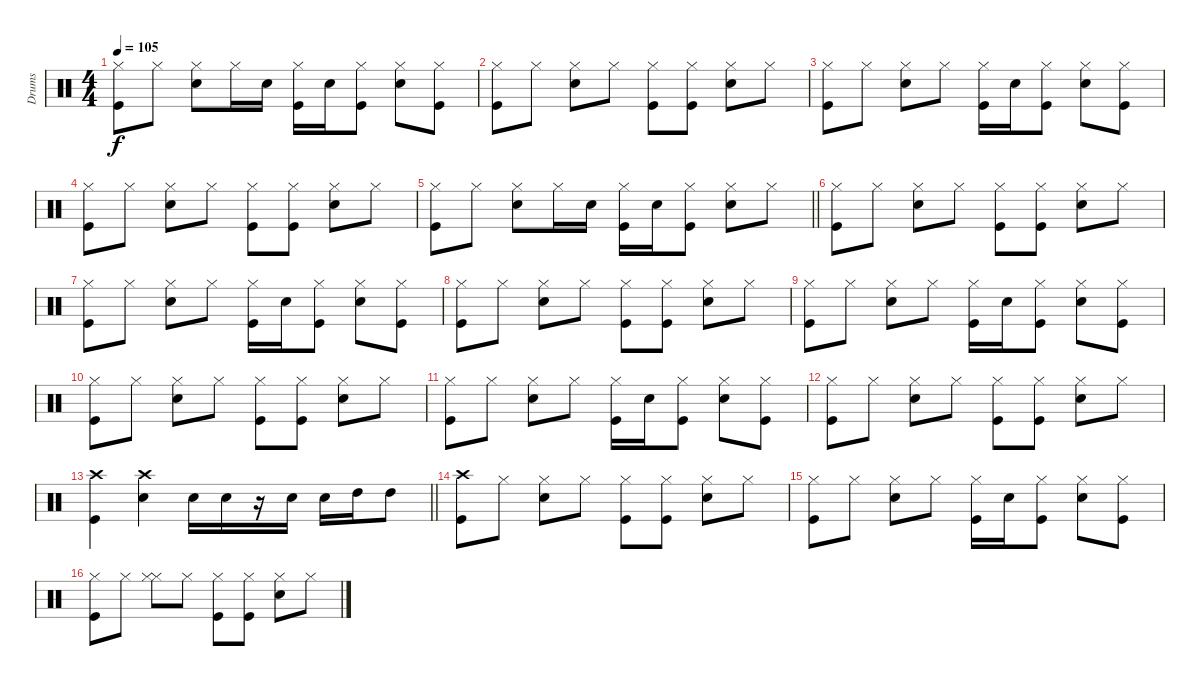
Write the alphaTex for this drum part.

\track ("Drums" "Drums") {instrument percussion}
\staff {score}
\articulation defaults
\ts (4 4)
\tempo 105
\clef neutral
\ks c
("Hi-Hat (closed)" "Kick (hit)").8{dy f} "Hi-Hat (closed)".8 ("Hi-Hat (closed)" "Electric Snare (hit)").8 "Hi-Hat (closed)".16 "Electric Snare (hit)".16 ("Hi-Hat (closed)" "Kick (hit)").16 "Electric Snare (hit)".16 ("Hi-Hat (closed)" "Kick (hit)").8 ("Hi-Hat (closed)" "Electric Snare (hit)").8 ("Hi-Hat (closed)" "Kick (hit)").8 |
("Hi-Hat (closed)" "Kick (hit)").8 "Hi-Hat (closed)".8 ("Hi-Hat (closed)" "Electric Snare (hit)").8 "Hi-Hat (closed)".8 ("Hi-Hat (closed)" "Kick (hit)").8 ("Hi-Hat (closed)" "Kick (hit)").8 ("Hi-Hat (closed)" "Electric Snare (hit)").8 "Hi-Hat (closed)".8 |
("Hi-Hat (closed)" "Kick (hit)").8 "Hi-Hat (closed)".8 ("Hi-Hat (closed)" "Electric Snare (hit)").8 "Hi-Hat (closed)".8 ("Hi-Hat (closed)" "Kick (hit)").16 "Electric Snare (hit)".16 ("Hi-Hat (closed)" "Kick (hit)").8 ("Hi-Hat (closed)" "Electric Snare (hit)").8 ("Hi-Hat (closed)" "Kick (hit)").8 |
("Hi-Hat (closed)" "Kick (hit)").8 "Hi-Hat (closed)".8 ("Hi-Hat (closed)" "Electric Snare (hit)").8 "Hi-Hat (closed)".8 ("Hi-Hat (closed)" "Kick (hit)").8 ("Hi-Hat (closed)" "Kick (hit)").8 ("Hi-Hat (closed)" "Electric Snare (hit)").8 "Hi-Hat (closed)".8 |
\barLineRight lightlight
("Hi-Hat (closed)" "Kick (hit)").8 "Hi-Hat (closed)".8 ("Hi-Hat (closed)" "Electric Snare (hit)").8 "Hi-Hat (closed)".16 "Electric Snare (hit)".16 ("Hi-Hat (closed)" "Kick (hit)").16 "Electric Snare (hit)".16 ("Hi-Hat (closed)" "Kick (hit)").8 ("Hi-Hat (closed)" "Electric Snare (hit)").8 "Hi-Hat (closed)".8 |
("Hi-Hat (closed)" "Kick (hit)").8 "Hi-Hat (closed)".8 ("Hi-Hat (closed)" "Electric Snare (hit)").8 "Hi-Hat (closed)".8 ("Hi-Hat (closed)" "Kick (hit)").8 ("Hi-Hat (closed)" "Kick (hit)").8 ("Hi-Hat (closed)" "Electric Snare (hit)").8 "Hi-Hat (closed)".8 |
("Hi-Hat (closed)" "Kick (hit)").8 "Hi-Hat (closed)".8 ("Hi-Hat (closed)" "Electric Snare (hit)").8 "Hi-Hat (closed)".8 ("Hi-Hat (closed)" "Kick (hit)").16 "Electric Snare (hit)".16 ("Hi-Hat (closed)" "Kick (hit)").8 ("Hi-Hat (closed)" "Electric Snare (hit)").8 ("Hi-Hat (closed)" "Kick (hit)").8 |
("Hi-Hat (closed)" "Kick (hit)").8 "Hi-Hat (closed)".8 ("Hi-Hat (closed)" "Electric Snare (hit)").8 "Hi-Hat (closed)".8 ("Hi-Hat (closed)" "Kick (hit)").8 ("Hi-Hat (closed)" "Kick (hit)").8 ("Hi-Hat (closed)" "Electric Snare (hit)").8 "Hi-Hat (closed)".8 |
("Hi-Hat (closed)" "Kick (hit)").8 "Hi-Hat (closed)".8 ("Hi-Hat (closed)" "Electric Snare (hit)").8 "Hi-Hat (closed)".8 ("Hi-Hat (closed)" "Kick (hit)").16 "Electric Snare (hit)".16 ("Hi-Hat (closed)" "Kick (hit)").8 ("Hi-Hat (closed)" "Electric Snare (hit)").8 ("Hi-Hat (closed)" "Kick (hit)").8 |
("Hi-Hat (closed)" "Kick (hit)").8 "Hi-Hat (closed)".8 ("Hi-Hat (closed)" "Electric Snare (hit)").8 "Hi-Hat (closed)".8 ("Hi-Hat (closed)" "Kick (hit)").8 ("Hi-Hat (closed)" "Kick (hit)").8 ("Hi-Hat (closed)" "Electric Snare (hit)").8 "Hi-Hat (closed)".8 |
("Hi-Hat (closed)" "Kick (hit)").8 "Hi-Hat (closed)".8 ("Hi-Hat (closed)" "Electric Snare (hit)").8 "Hi-Hat (closed)".8 ("Hi-Hat (closed)" "Kick (hit)").16 "Electric Snare (hit)".16 ("Hi-Hat (closed)" "Kick (hit)").8 ("Hi-Hat (closed)" "Electric Snare (hit)").8 ("Hi-Hat (closed)" "Kick (hit)").8 |
("Hi-Hat (closed)" "Kick (hit)").8 "Hi-Hat (closed)".8 ("Hi-Hat (closed)" "Electric Snare (hit)").8 "Hi-Hat (closed)".8 ("Hi-Hat (closed)" "Kick (hit)").8 ("Hi-Hat (closed)" "Kick (hit)").8 ("Hi-Hat (closed)" "Electric Snare (hit)").8 "Hi-Hat (closed)".8 |
\barLineRight lightlight
("Crash high (hit)" "Kick (hit)").4 ("Crash high (hit)" "Electric Snare (hit)").4 "Electric Snare (hit)".16 "Electric Snare (hit)".16 r.16 "Electric Snare (hit)".16 "Electric Snare (hit)".16 "High Tom (hit)".16 "High Tom (hit)".8 |
("Crash high (hit)" "Kick (hit)").8 "Hi-Hat (closed)".8 ("Hi-Hat (closed)" "Electric Snare (hit)").8 "Hi-Hat (closed)".8 ("Hi-Hat (closed)" "Kick (hit)").8 ("Hi-Hat (closed)" "Kick (hit)").8 ("Hi-Hat (closed)" "Electric Snare (hit)").8 "Hi-Hat (closed)".8 |
("Hi-Hat (closed)" "Kick (hit)").8 "Hi-Hat (closed)".8 ("Hi-Hat (closed)" "Electric Snare (hit)").8 "Hi-Hat (closed)".8 ("Hi-Hat (closed)" "Kick (hit)").16 "Electric Snare (hit)".16 ("Hi-Hat (closed)" "Kick (hit)").8 ("Hi-Hat (closed)" "Electric Snare (hit)").8 ("Hi-Hat (closed)" "Kick (hit)").8 |
("Hi-Hat (closed)" "Kick (hit)").8 "Hi-Hat (closed)".8 ("Hi-Hat (closed)" "Hi-Hat (closed)").8 "Hi-Hat (closed)".8 ("Hi-Hat (closed)" "Kick (hit)").8 ("Hi-Hat (closed)" "Kick (hit)").8 ("Hi-Hat (closed)" "Electric Snare (hit)").8 "Hi-Hat (closed)".8
